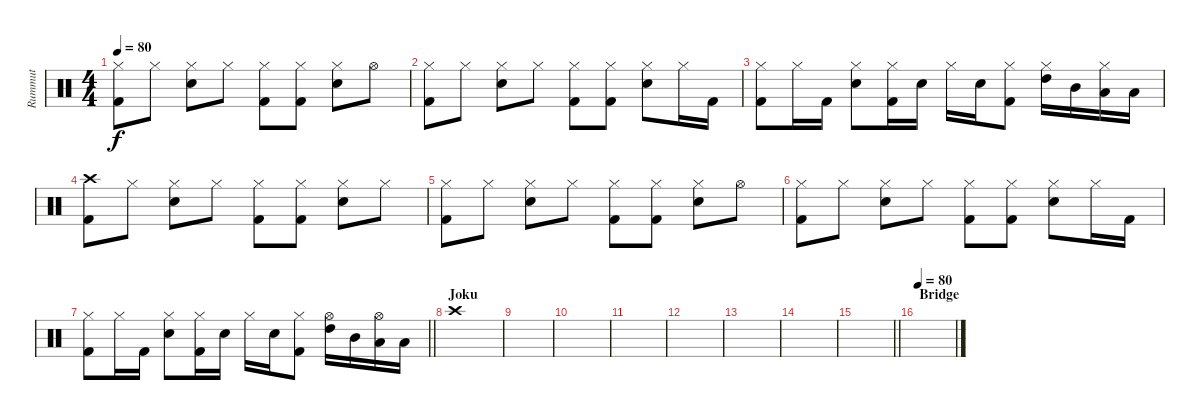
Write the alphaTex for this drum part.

\track ("Rummut" "Rummut") {instrument percussion}
\staff {score}
\articulation defaults
\ts (4 4)
\tempo 80
\clef neutral
\ks c
("Hi-Hat (closed)" "Kick (hit) 2").8{dy f} "Hi-Hat (closed)".8 ("Hi-Hat (closed)" "Snare (hit) 2").8 "Hi-Hat (closed)".8 ("Hi-Hat (closed)" "Kick (hit) 2").8 ("Hi-Hat (closed)" "Kick (hit) 2").8 ("Hi-Hat (closed)" "Snare (hit) 2").8 "Hi-Hat (open)".8 |
("Hi-Hat (closed)" "Kick (hit) 2").8 "Hi-Hat (closed)".8 ("Hi-Hat (closed)" "Snare (hit) 2").8 "Hi-Hat (closed)".8 ("Hi-Hat (closed)" "Kick (hit) 2").8 ("Hi-Hat (closed)" "Kick (hit) 2").8 ("Hi-Hat (closed)" "Snare (hit) 2").8 "Hi-Hat (closed)".16 "Kick (hit) 2".16 |
("Hi-Hat (closed)" "Kick (hit) 2").8 "Hi-Hat (closed)".16 "Kick (hit) 2".16 ("Hi-Hat (closed)" "Snare (hit) 2").8 ("Hi-Hat (closed)" "Kick (hit) 2").16 "Snare (hit) 2".16 "Hi-Hat (closed)".16 "Snare (hit) 2".16 ("Hi-Hat (closed)" "Kick (hit) 2").8 ("Hi-Hat (closed)" "High Tom (hit)").16 "Mid Tom (hit)".16 ("Hi-Hat (closed)" "Low Floor Tom (hit)").16 "Low Floor Tom (hit)".16 |
("Crash high (hit)" "Kick (hit) 2").8 "Hi-Hat (closed)".8 ("Hi-Hat (closed)" "Snare (hit) 2").8 "Hi-Hat (closed)".8 ("Hi-Hat (closed)" "Kick (hit) 2").8 ("Hi-Hat (closed)" "Kick (hit) 2").8 ("Hi-Hat (closed)" "Snare (hit) 2").8 "Hi-Hat (closed)".8 |
("Hi-Hat (closed)" "Kick (hit) 2").8 "Hi-Hat (closed)".8 ("Hi-Hat (closed)" "Snare (hit) 2").8 "Hi-Hat (closed)".8 ("Hi-Hat (closed)" "Kick (hit) 2").8 ("Hi-Hat (closed)" "Kick (hit) 2").8 ("Hi-Hat (closed)" "Snare (hit) 2").8 "Hi-Hat (open)".8 |
("Hi-Hat (closed)" "Kick (hit) 2").8 "Hi-Hat (closed)".8 ("Hi-Hat (closed)" "Snare (hit) 2").8 "Hi-Hat (closed)".8 ("Hi-Hat (closed)" "Kick (hit) 2").8 ("Hi-Hat (closed)" "Kick (hit) 2").8 ("Hi-Hat (closed)" "Snare (hit) 2").8 "Hi-Hat (closed)".16 "Kick (hit) 2".16 |
\barLineRight lightlight
("Hi-Hat (closed)" "Kick (hit) 2").8 "Hi-Hat (closed)".16 "Kick (hit) 2".16 ("Hi-Hat (closed)" "Snare (hit) 2").8 ("Hi-Hat (closed)" "Kick (hit) 2").16 "Snare (hit) 2".16 "Hi-Hat (closed)".16 "Snare (hit) 2".16 ("Hi-Hat (closed)" "Kick (hit) 2").8 ("Hi-Hat (open)" "High Tom (hit)").16 "Mid Tom (hit)".16 ("Hi-Hat (open)" "Low Floor Tom (hit)").16 "Low Floor Tom (hit)".16 |
\section ("" "Joku")
"Crash high (hit)".1 |
|
|
|
|
|
|
\barLineRight lightlight
|
\section ("" "Bridge")
\tempo 80
